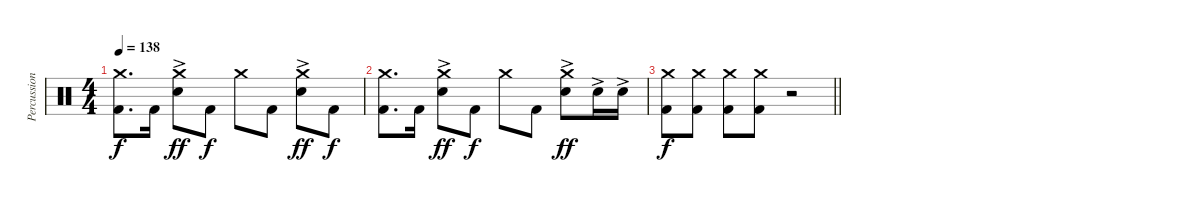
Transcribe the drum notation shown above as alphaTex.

\track ("Percussion" "Percussion") {instrument percussion}
\staff {score}
\articulation defaults
\ts (4 4)
\tempo 138
\clef neutral
\ks c
("Crash medium (hit)" "Kick (hit) 2").8{d dy f} "Kick (hit) 2".16 ("Crash medium (hit)" "Electric Snare (hit)"{ac}).8{dy ff} "Kick (hit) 2".8{dy f} "Crash medium (hit)".8 "Kick (hit) 2".8 ("Crash medium (hit)" "Electric Snare (hit)"{ac}).8{dy ff} "Kick (hit) 2".8{dy f} |
("Crash medium (hit)" "Kick (hit) 2").8{d} "Kick (hit) 2".16 ("Crash medium (hit)" "Electric Snare (hit)"{ac}).8{dy ff} "Kick (hit) 2".8{dy f} "Crash medium (hit)".8 "Kick (hit) 2".8 ("Crash medium (hit)" "Electric Snare (hit)"{ac}).8{dy ff} "Electric Snare (hit)"{ac}.16 "Electric Snare (hit)"{ac}.16 |
\barLineRight lightlight
("Crash medium (hit)" "Kick (hit) 2").8{dy f} ("Crash medium (hit)" "Kick (hit) 2").8 ("Crash medium (hit)" "Kick (hit) 2").8 ("Crash medium (hit)" "Kick (hit) 2").8 r.2
